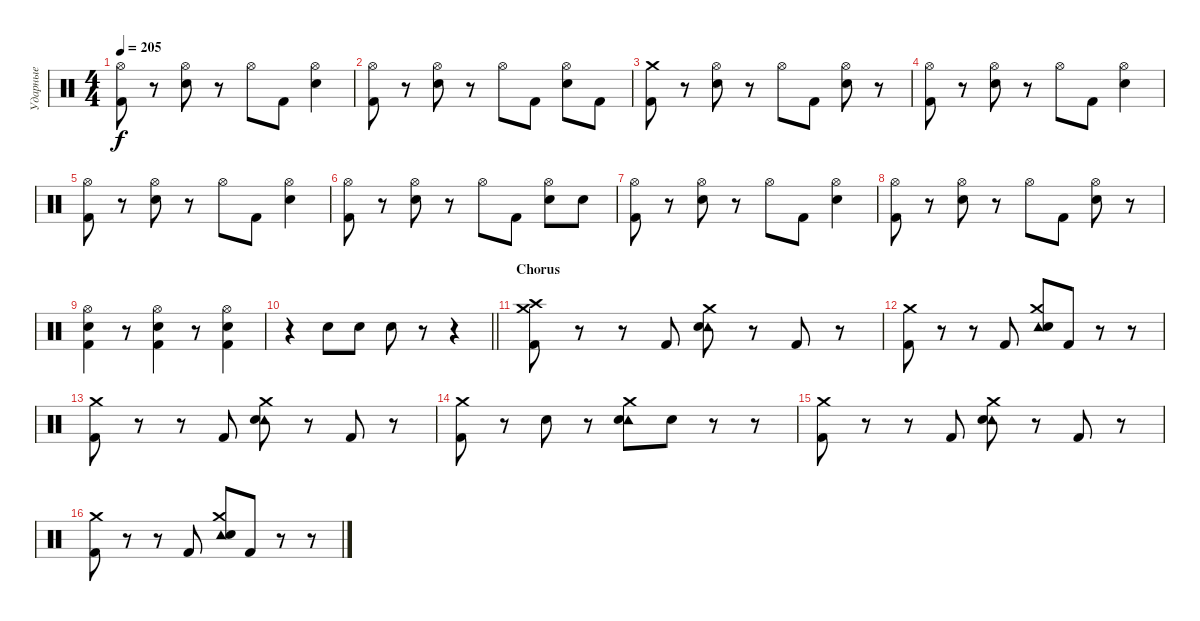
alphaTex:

\track ("Ударные" "Ударные") {instrument percussion}
\staff {score}
\articulation defaults
\ts (4 4)
\tempo 205
\clef neutral
\ks c
("Hi-Hat (open)" "Kick (hit) 2").8{dy f} r.8 ("Hi-Hat (open)" "Electric Snare (hit)").8 r.8 "Hi-Hat (open)".8 "Kick (hit) 2".8 ("Hi-Hat (open)" "Electric Snare (hit)").4 |
("Hi-Hat (open)" "Kick (hit) 2").8 r.8 ("Hi-Hat (open)" "Electric Snare (hit)").8 r.8 "Hi-Hat (open)".8 "Kick (hit) 2".8 ("Hi-Hat (open)" "Electric Snare (hit)").8 "Kick (hit) 2".8 |
("Crash medium (hit)" "Kick (hit) 2").8 r.8 ("Hi-Hat (open)" "Electric Snare (hit)").8 r.8 "Hi-Hat (open)".8 "Kick (hit) 2".8 ("Hi-Hat (open)" "Electric Snare (hit)").8 r.8 |
("Hi-Hat (open)" "Kick (hit) 2").8 r.8 ("Hi-Hat (open)" "Electric Snare (hit)").8 r.8 "Hi-Hat (open)".8 "Kick (hit) 2".8 ("Hi-Hat (open)" "Electric Snare (hit)").4 |
("Hi-Hat (open)" "Kick (hit) 2").8 r.8 ("Hi-Hat (open)" "Electric Snare (hit)").8 r.8 "Hi-Hat (open)".8 "Kick (hit) 2".8 ("Hi-Hat (open)" "Electric Snare (hit)").4 |
("Hi-Hat (open)" "Kick (hit) 2").8 r.8 ("Hi-Hat (open)" "Electric Snare (hit)").8 r.8 "Hi-Hat (open)".8 "Kick (hit) 2".8 ("Hi-Hat (open)" "Electric Snare (hit)").8 "Electric Snare (hit)".8 |
("Hi-Hat (open)" "Kick (hit) 2").8 r.8 ("Hi-Hat (open)" "Electric Snare (hit)").8 r.8 "Hi-Hat (open)".8 "Kick (hit) 2".8 ("Hi-Hat (open)" "Electric Snare (hit)").4 |
("Hi-Hat (open)" "Kick (hit) 2").8 r.8 ("Hi-Hat (open)" "Electric Snare (hit)").8 r.8 "Hi-Hat (open)".8 "Kick (hit) 2".8 ("Hi-Hat (open)" "Electric Snare (hit)").8 r.8 |
("Hi-Hat (open)" "Electric Snare (hit)" "Kick (hit) 2").4 r.8 ("Hi-Hat (open)" "Electric Snare (hit)" "Kick (hit) 2").4 r.8 ("Hi-Hat (open)" "Electric Snare (hit)" "Kick (hit) 2").4 |
\barLineRight lightlight
r.4 "Electric Snare (hit)".8 "Electric Snare (hit)".8 "Electric Snare (hit)".8 r.8 r.4 |
\section ("" "Chorus")
("Crash high (hit)" "Crash medium (hit)" "Kick (hit) 2").8 r.8 r.8 "Kick (hit) 2".8 ("Crash medium (hit)" "Tambourine (hit)" "Electric Snare (hit)").8 r.8 "Kick (hit) 2".8 r.8 |
("Crash medium (hit)" "Kick (hit) 2").8 r.8 r.8 "Kick (hit) 2".8 ("Crash medium (hit)" "Tambourine (hit)" "Electric Snare (hit)").8 "Kick (hit) 2".8 r.8 r.8 |
("Crash medium (hit)" "Kick (hit) 2").8 r.8 r.8 "Kick (hit) 2".8 ("Crash medium (hit)" "Tambourine (hit)" "Electric Snare (hit)").8 r.8 "Kick (hit) 2".8 r.8 |
("Crash medium (hit)" "Kick (hit) 2").8 r.8 "Electric Snare (hit)".8 r.8 ("Crash medium (hit)" "Tambourine (hit)" "Electric Snare (hit)").8 "Electric Snare (hit)".8 r.8 r.8 |
("Crash medium (hit)" "Kick (hit) 2").8 r.8 r.8 "Kick (hit) 2".8 ("Crash medium (hit)" "Tambourine (hit)" "Electric Snare (hit)").8 r.8 "Kick (hit) 2".8 r.8 |
("Crash medium (hit)" "Kick (hit) 2").8 r.8 r.8 "Kick (hit) 2".8 ("Crash medium (hit)" "Tambourine (hit)" "Electric Snare (hit)").8 "Kick (hit) 2".8 r.8 r.8
